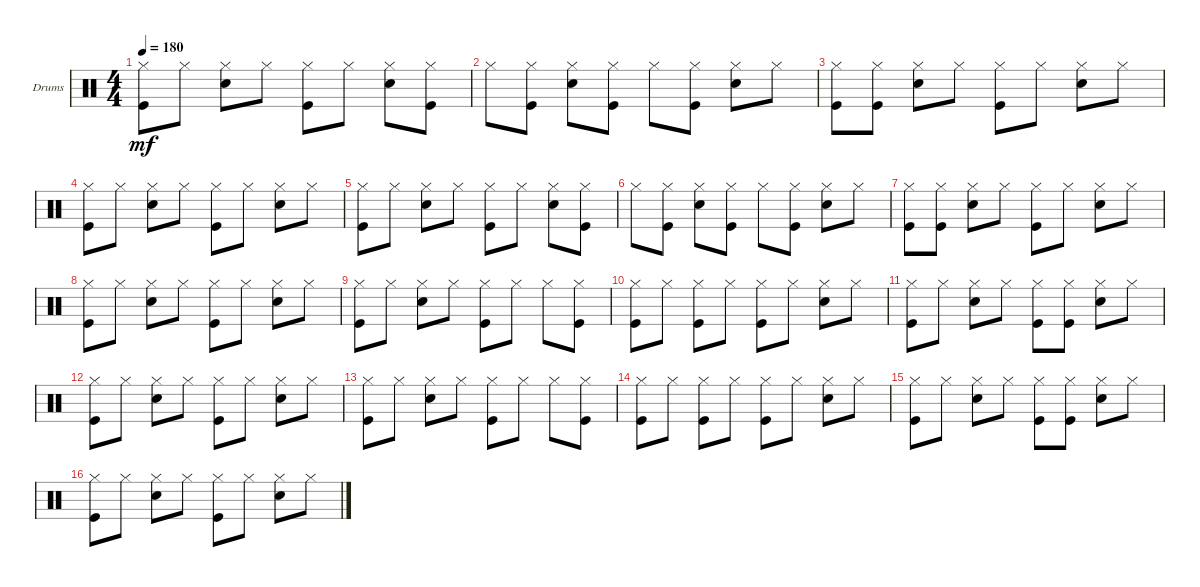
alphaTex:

\bracketExtendMode groupsimilarinstruments
\firstSystemTrackNameOrientation horizontal
\otherSystemsTrackNameOrientation horizontal
\track ("Drumkit" "Drums") {instrument percussion}
\staff {score}
\articulation defaults
\ts (4 4)
\tempo 180
\clef neutral
\ks c
("Hi-Hat (closed)" "Kick (hit)").8{dy mf} "Hi-Hat (closed)".8 ("Hi-Hat (closed)" "Snare (hit) 2").8 "Hi-Hat (closed)".8 ("Hi-Hat (closed)" "Kick (hit)").8 "Hi-Hat (closed)".8 ("Hi-Hat (closed)" "Snare (hit) 2").8 ("Hi-Hat (closed)" "Kick (hit)").8 |
"Hi-Hat (closed)".8 ("Hi-Hat (closed)" "Kick (hit)").8 ("Hi-Hat (closed)" "Snare (hit) 2").8 ("Hi-Hat (closed)" "Kick (hit)").8 "Hi-Hat (closed)".8 ("Hi-Hat (closed)" "Kick (hit)").8 ("Hi-Hat (closed)" "Snare (hit) 2").8 "Hi-Hat (closed)".8 |
("Hi-Hat (closed)" "Kick (hit)").8 ("Hi-Hat (closed)" "Kick (hit)").8 ("Hi-Hat (closed)" "Snare (hit) 2").8 "Hi-Hat (closed)".8 ("Hi-Hat (closed)" "Kick (hit)").8 "Hi-Hat (closed)".8 ("Hi-Hat (closed)" "Snare (hit) 2").8 "Hi-Hat (closed)".8 |
("Hi-Hat (closed)" "Kick (hit)").8 "Hi-Hat (closed)".8 ("Hi-Hat (closed)" "Snare (hit) 2").8 "Hi-Hat (closed)".8 ("Hi-Hat (closed)" "Kick (hit)").8 "Hi-Hat (closed)".8 ("Hi-Hat (closed)" "Snare (hit) 2").8 "Hi-Hat (closed)".8 |
("Hi-Hat (closed)" "Kick (hit)").8 "Hi-Hat (closed)".8 ("Hi-Hat (closed)" "Snare (hit) 2").8 "Hi-Hat (closed)".8 ("Hi-Hat (closed)" "Kick (hit)").8 "Hi-Hat (closed)".8 ("Hi-Hat (closed)" "Snare (hit) 2").8 ("Hi-Hat (closed)" "Kick (hit)").8 |
"Hi-Hat (closed)".8 ("Hi-Hat (closed)" "Kick (hit)").8 ("Hi-Hat (closed)" "Snare (hit) 2").8 ("Hi-Hat (closed)" "Kick (hit)").8 "Hi-Hat (closed)".8 ("Hi-Hat (closed)" "Kick (hit)").8 ("Hi-Hat (closed)" "Snare (hit) 2").8 "Hi-Hat (closed)".8 |
("Hi-Hat (closed)" "Kick (hit)").8 ("Hi-Hat (closed)" "Kick (hit)").8 ("Hi-Hat (closed)" "Snare (hit) 2").8 "Hi-Hat (closed)".8 ("Hi-Hat (closed)" "Kick (hit)").8 "Hi-Hat (closed)".8 ("Hi-Hat (closed)" "Snare (hit) 2").8 "Hi-Hat (closed)".8 |
("Hi-Hat (closed)" "Kick (hit)").8 "Hi-Hat (closed)".8 ("Hi-Hat (closed)" "Snare (hit) 2").8 "Hi-Hat (closed)".8 ("Hi-Hat (closed)" "Kick (hit)").8 "Hi-Hat (closed)".8 ("Hi-Hat (closed)" "Snare (hit) 2").8 "Hi-Hat (closed)".8 |
("Hi-Hat (closed)" "Kick (hit)").8 "Hi-Hat (closed)".8 ("Hi-Hat (closed)" "Snare (hit) 2").8 "Hi-Hat (closed)".8 ("Hi-Hat (closed)" "Kick (hit)").8 "Hi-Hat (closed)".8 "Hi-Hat (closed)".8 ("Hi-Hat (closed)" "Kick (hit)").8 |
("Hi-Hat (closed)" "Kick (hit)").8 "Hi-Hat (closed)".8 ("Hi-Hat (closed)" "Kick (hit)").8 "Hi-Hat (closed)".8 ("Hi-Hat (closed)" "Kick (hit)").8 "Hi-Hat (closed)".8 ("Hi-Hat (closed)" "Snare (hit) 2").8 "Hi-Hat (closed)".8 |
("Hi-Hat (closed)" "Kick (hit)").8 "Hi-Hat (closed)".8 ("Hi-Hat (closed)" "Snare (hit) 2").8 "Hi-Hat (closed)".8 ("Hi-Hat (closed)" "Kick (hit)").8 ("Hi-Hat (closed)" "Kick (hit)").8 ("Hi-Hat (closed)" "Snare (hit) 2").8 "Hi-Hat (closed)".8 |
("Hi-Hat (closed)" "Kick (hit)").8 "Hi-Hat (closed)".8 ("Hi-Hat (closed)" "Snare (hit) 2").8 "Hi-Hat (closed)".8 ("Hi-Hat (closed)" "Kick (hit)").8 "Hi-Hat (closed)".8 ("Hi-Hat (closed)" "Snare (hit) 2").8 "Hi-Hat (closed)".8 |
("Hi-Hat (closed)" "Kick (hit)").8 "Hi-Hat (closed)".8 ("Hi-Hat (closed)" "Snare (hit) 2").8 "Hi-Hat (closed)".8 ("Hi-Hat (closed)" "Kick (hit)").8 "Hi-Hat (closed)".8 "Hi-Hat (closed)".8 ("Hi-Hat (closed)" "Kick (hit)").8 |
("Hi-Hat (closed)" "Kick (hit)").8 "Hi-Hat (closed)".8 ("Hi-Hat (closed)" "Kick (hit)").8 "Hi-Hat (closed)".8 ("Hi-Hat (closed)" "Kick (hit)").8 "Hi-Hat (closed)".8 ("Hi-Hat (closed)" "Snare (hit) 2").8 "Hi-Hat (closed)".8 |
("Hi-Hat (closed)" "Kick (hit)").8 "Hi-Hat (closed)".8 ("Hi-Hat (closed)" "Snare (hit) 2").8 "Hi-Hat (closed)".8 ("Hi-Hat (closed)" "Kick (hit)").8 ("Hi-Hat (closed)" "Kick (hit)").8 ("Hi-Hat (closed)" "Snare (hit) 2").8 "Hi-Hat (closed)".8 |
("Hi-Hat (closed)" "Kick (hit)").8 "Hi-Hat (closed)".8 ("Hi-Hat (closed)" "Snare (hit) 2").8 "Hi-Hat (closed)".8 ("Hi-Hat (closed)" "Kick (hit)").8 "Hi-Hat (closed)".8 ("Hi-Hat (closed)" "Snare (hit) 2").8 "Hi-Hat (closed)".8
